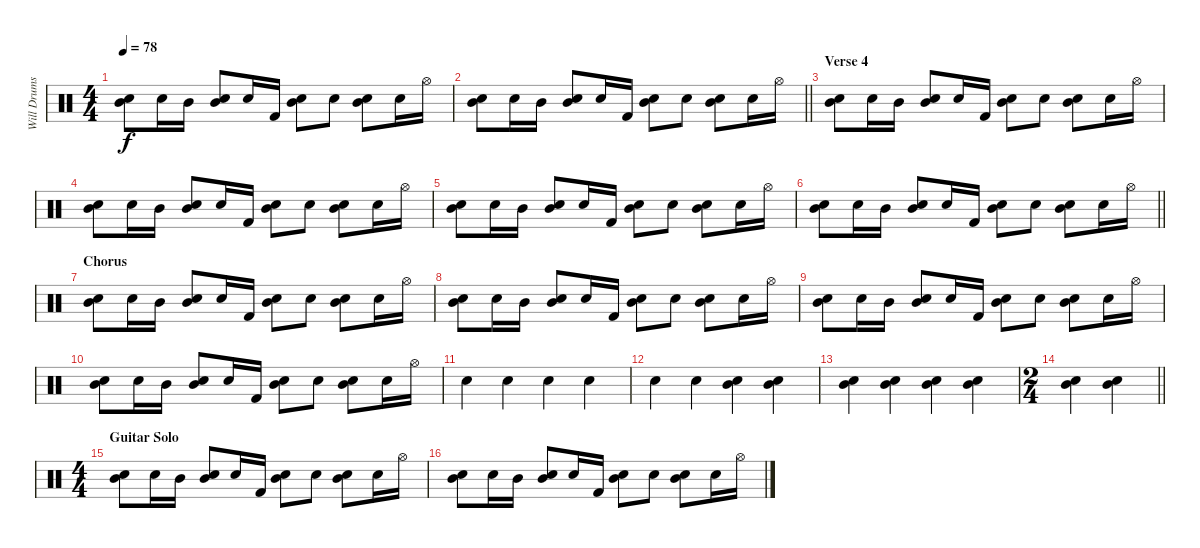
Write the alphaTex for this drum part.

\track ("Will Drums" "Will Drums") {instrument percussion}
\staff {score}
\articulation defaults
\ts (4 4)
\tempo 78
\clef neutral
\ks c
("Mid Tom (hit)" "Snare (hit) 2").8{dy f} "Snare (hit) 2".16 "Mid Tom (hit)".16 ("Mid Tom (hit)" "Snare (hit) 2").8 "Snare (hit) 2".16 "Kick (hit) 2".16 ("Mid Tom (hit)" "Snare (hit) 2").8 "Snare (hit) 2".8 ("Mid Tom (hit)" "Snare (hit) 2").8 "Snare (hit) 2".16 "Hi-Hat (open)".16 |
\barLineRight lightlight
("Mid Tom (hit)" "Snare (hit) 2").8 "Snare (hit) 2".16 "Mid Tom (hit)".16 ("Mid Tom (hit)" "Snare (hit) 2").8 "Snare (hit) 2".16 "Kick (hit) 2".16 ("Mid Tom (hit)" "Snare (hit) 2").8 "Snare (hit) 2".8 ("Mid Tom (hit)" "Snare (hit) 2").8 "Snare (hit) 2".16 "Hi-Hat (open)".16 |
\section ("" "Verse 4")
("Mid Tom (hit)" "Snare (hit) 2").8 "Snare (hit) 2".16 "Mid Tom (hit)".16 ("Mid Tom (hit)" "Snare (hit) 2").8 "Snare (hit) 2".16 "Kick (hit) 2".16 ("Mid Tom (hit)" "Snare (hit) 2").8 "Snare (hit) 2".8 ("Mid Tom (hit)" "Snare (hit) 2").8 "Snare (hit) 2".16 "Hi-Hat (open)".16 |
("Mid Tom (hit)" "Snare (hit) 2").8 "Snare (hit) 2".16 "Mid Tom (hit)".16 ("Mid Tom (hit)" "Snare (hit) 2").8 "Snare (hit) 2".16 "Kick (hit) 2".16 ("Mid Tom (hit)" "Snare (hit) 2").8 "Snare (hit) 2".8 ("Mid Tom (hit)" "Snare (hit) 2").8 "Snare (hit) 2".16 "Hi-Hat (open)".16 |
("Mid Tom (hit)" "Snare (hit) 2").8 "Snare (hit) 2".16 "Mid Tom (hit)".16 ("Mid Tom (hit)" "Snare (hit) 2").8 "Snare (hit) 2".16 "Kick (hit) 2".16 ("Mid Tom (hit)" "Snare (hit) 2").8 "Snare (hit) 2".8 ("Mid Tom (hit)" "Snare (hit) 2").8 "Snare (hit) 2".16 "Hi-Hat (open)".16 |
\barLineRight lightlight
("Mid Tom (hit)" "Snare (hit) 2").8 "Snare (hit) 2".16 "Mid Tom (hit)".16 ("Mid Tom (hit)" "Snare (hit) 2").8 "Snare (hit) 2".16 "Kick (hit) 2".16 ("Mid Tom (hit)" "Snare (hit) 2").8 "Snare (hit) 2".8 ("Mid Tom (hit)" "Snare (hit) 2").8 "Snare (hit) 2".16 "Hi-Hat (open)".16 |
\section ("" "Chorus")
("Mid Tom (hit)" "Snare (hit) 2").8 "Snare (hit) 2".16 "Mid Tom (hit)".16 ("Mid Tom (hit)" "Snare (hit) 2").8 "Snare (hit) 2".16 "Kick (hit) 2".16 ("Mid Tom (hit)" "Snare (hit) 2").8 "Snare (hit) 2".8 ("Mid Tom (hit)" "Snare (hit) 2").8 "Snare (hit) 2".16 "Hi-Hat (open)".16 |
("Mid Tom (hit)" "Snare (hit) 2").8 "Snare (hit) 2".16 "Mid Tom (hit)".16 ("Mid Tom (hit)" "Snare (hit) 2").8 "Snare (hit) 2".16 "Kick (hit) 2".16 ("Mid Tom (hit)" "Snare (hit) 2").8 "Snare (hit) 2".8 ("Mid Tom (hit)" "Snare (hit) 2").8 "Snare (hit) 2".16 "Hi-Hat (open)".16 |
("Mid Tom (hit)" "Snare (hit) 2").8 "Snare (hit) 2".16 "Mid Tom (hit)".16 ("Mid Tom (hit)" "Snare (hit) 2").8 "Snare (hit) 2".16 "Kick (hit) 2".16 ("Mid Tom (hit)" "Snare (hit) 2").8 "Snare (hit) 2".8 ("Mid Tom (hit)" "Snare (hit) 2").8 "Snare (hit) 2".16 "Hi-Hat (open)".16 |
("Mid Tom (hit)" "Snare (hit) 2").8 "Snare (hit) 2".16 "Mid Tom (hit)".16 ("Mid Tom (hit)" "Snare (hit) 2").8 "Snare (hit) 2".16 "Kick (hit) 2".16 ("Mid Tom (hit)" "Snare (hit) 2").8 "Snare (hit) 2".8 ("Mid Tom (hit)" "Snare (hit) 2").8 "Snare (hit) 2".16 "Hi-Hat (open)".16 |
"Snare (hit) 2".4 "Snare (hit) 2".4 "Snare (hit) 2".4 "Snare (hit) 2".4 |
"Snare (hit) 2".4 "Snare (hit) 2".4 ("Mid Tom (hit)" "Snare (hit) 2").4 ("Mid Tom (hit)" "Snare (hit) 2").4 |
("Mid Tom (hit)" "Snare (hit) 2").4 ("Mid Tom (hit)" "Snare (hit) 2").4 ("Mid Tom (hit)" "Snare (hit) 2").4 ("Mid Tom (hit)" "Snare (hit) 2").4 |
\ts (2 4)
\barLineRight lightlight
("Mid Tom (hit)" "Snare (hit) 2").4 ("Mid Tom (hit)" "Snare (hit) 2").4 |
\ts (4 4)
\section ("" "Guitar Solo")
("Mid Tom (hit)" "Snare (hit) 2").8 "Snare (hit) 2".16 "Mid Tom (hit)".16 ("Mid Tom (hit)" "Snare (hit) 2").8 "Snare (hit) 2".16 "Kick (hit) 2".16 ("Mid Tom (hit)" "Snare (hit) 2").8 "Snare (hit) 2".8 ("Mid Tom (hit)" "Snare (hit) 2").8 "Snare (hit) 2".16 "Hi-Hat (open)".16 |
("Mid Tom (hit)" "Snare (hit) 2").8 "Snare (hit) 2".16 "Mid Tom (hit)".16 ("Mid Tom (hit)" "Snare (hit) 2").8 "Snare (hit) 2".16 "Kick (hit) 2".16 ("Mid Tom (hit)" "Snare (hit) 2").8 "Snare (hit) 2".8 ("Mid Tom (hit)" "Snare (hit) 2").8 "Snare (hit) 2".16 "Hi-Hat (open)".16
